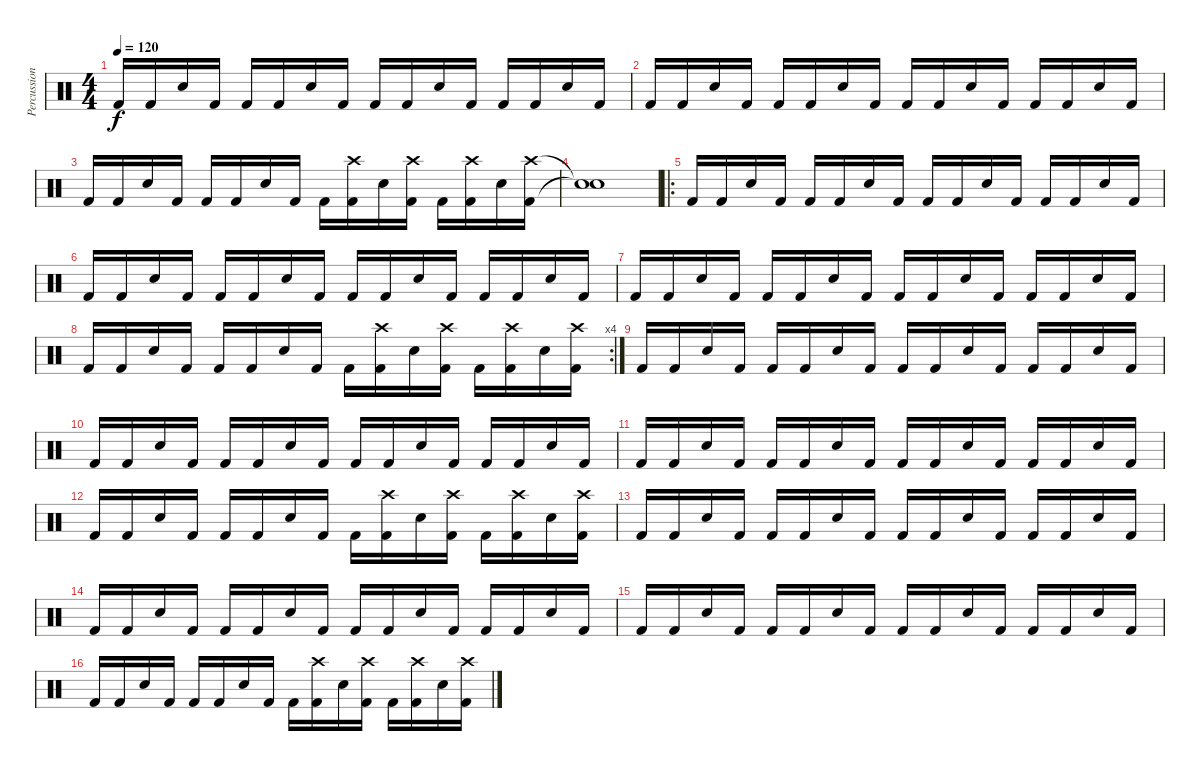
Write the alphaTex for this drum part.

\track ("Percussion" "Percussion") {instrument percussion}
\staff {score}
\articulation defaults
\ts (4 4)
\tempo 120
\clef neutral
\ks c "Kick (hit) 2".16{dy f} "Kick (hit) 2".16 "Snare (hit) 2".16 "Kick (hit) 2".16 "Kick (hit) 2".16 "Kick (hit) 2".16 "Snare (hit) 2".16 "Kick (hit) 2".16 "Kick (hit) 2".16 "Kick (hit) 2".16 "Snare (hit) 2".16 "Kick (hit) 2".16 "Kick (hit) 2".16 "Kick (hit) 2".16 "Snare (hit) 2".16 "Kick (hit) 2".16
|
"Kick (hit) 2".16 "Kick (hit) 2".16 "Snare (hit) 2".16 "Kick (hit) 2".16 "Kick (hit) 2".16 "Kick (hit) 2".16 "Snare (hit) 2".16 "Kick (hit) 2".16 "Kick (hit) 2".16 "Kick (hit) 2".16 "Snare (hit) 2".16 "Kick (hit) 2".16 "Kick (hit) 2".16 "Kick (hit) 2".16 "Snare (hit) 2".16 "Kick (hit) 2".16 |
"Kick (hit) 2".16 "Kick (hit) 2".16 "Snare (hit) 2".16 "Kick (hit) 2".16 "Kick (hit) 2".16 "Kick (hit) 2".16 "Snare (hit) 2".16 "Kick (hit) 2".16 "Kick (hit) 2".16 ("Crash high (hit)" "Kick (hit) 2").16 "Snare (hit) 2".16 ("Crash high (hit)" "Kick (hit) 2").16 "Kick (hit) 2".16 ("Crash high (hit)" "Kick (hit) 2").16 "Snare (hit) 2".16 ("Crash high (hit)" "Kick (hit) 2").16 |
("Snare (hit)"{t} "Snare (hit)"{t}).1 |
\ro "Kick (hit) 2".16 "Kick (hit) 2".16 "Snare (hit) 2".16 "Kick (hit) 2".16 "Kick (hit) 2".16 "Kick (hit) 2".16 "Snare (hit) 2".16 "Kick (hit) 2".16 "Kick (hit) 2".16 "Kick (hit) 2".16 "Snare (hit) 2".16 "Kick (hit) 2".16 "Kick (hit) 2".16 "Kick (hit) 2".16 "Snare (hit) 2".16 "Kick (hit) 2".16
|
"Kick (hit) 2".16 "Kick (hit) 2".16 "Snare (hit) 2".16 "Kick (hit) 2".16 "Kick (hit) 2".16 "Kick (hit) 2".16 "Snare (hit) 2".16 "Kick (hit) 2".16 "Kick (hit) 2".16 "Kick (hit) 2".16 "Snare (hit) 2".16 "Kick (hit) 2".16 "Kick (hit) 2".16 "Kick (hit) 2".16 "Snare (hit) 2".16 "Kick (hit) 2".16 |
"Kick (hit) 2".16 "Kick (hit) 2".16 "Snare (hit) 2".16 "Kick (hit) 2".16 "Kick (hit) 2".16 "Kick (hit) 2".16 "Snare (hit) 2".16 "Kick (hit) 2".16 "Kick (hit) 2".16 "Kick (hit) 2".16 "Snare (hit) 2".16 "Kick (hit) 2".16 "Kick (hit) 2".16 "Kick (hit) 2".16 "Snare (hit) 2".16 "Kick (hit) 2".16 |
\rc 4 "Kick (hit) 2".16 "Kick (hit) 2".16 "Snare (hit) 2".16 "Kick (hit) 2".16 "Kick (hit) 2".16 "Kick (hit) 2".16 "Snare (hit) 2".16 "Kick (hit) 2".16 "Kick (hit) 2".16
("Crash high (hit)" "Kick (hit) 2").16 "Snare (hit) 2".16 ("Crash high (hit)" "Kick (hit) 2").16 "Kick (hit) 2".16 ("Crash high (hit)" "Kick (hit) 2").16 "Snare (hit) 2".16 ("Crash high (hit)" "Kick (hit) 2").16 |
"Kick (hit) 2".16 "Kick (hit) 2".16 "Snare (hit) 2".16 "Kick (hit) 2".16 "Kick (hit) 2".16 "Kick (hit) 2".16 "Snare (hit) 2".16 "Kick (hit) 2".16 "Kick (hit) 2".16 "Kick (hit) 2".16 "Snare (hit) 2".16 "Kick (hit) 2".16 "Kick (hit) 2".16 "Kick (hit) 2".16 "Snare (hit) 2".16 "Kick (hit) 2".16 |
"Kick (hit) 2".16 "Kick (hit) 2".16 "Snare (hit) 2".16 "Kick (hit) 2".16 "Kick (hit) 2".16 "Kick (hit) 2".16 "Snare (hit) 2".16 "Kick (hit) 2".16 "Kick (hit) 2".16 "Kick (hit) 2".16 "Snare (hit) 2".16 "Kick (hit) 2".16 "Kick (hit) 2".16 "Kick (hit) 2".16 "Snare (hit) 2".16 "Kick (hit) 2".16 |
"Kick (hit) 2".16 "Kick (hit) 2".16 "Snare (hit) 2".16 "Kick (hit) 2".16 "Kick (hit) 2".16 "Kick (hit) 2".16 "Snare (hit) 2".16 "Kick (hit) 2".16 "Kick (hit) 2".16 "Kick (hit) 2".16 "Snare (hit) 2".16 "Kick (hit) 2".16 "Kick (hit) 2".16 "Kick (hit) 2".16 "Snare (hit) 2".16 "Kick (hit) 2".16 |
"Kick (hit) 2".16 "Kick (hit) 2".16 "Snare (hit) 2".16 "Kick (hit) 2".16 "Kick (hit) 2".16 "Kick (hit) 2".16 "Snare (hit) 2".16 "Kick (hit) 2".16 "Kick (hit) 2".16 ("Crash high (hit)" "Kick (hit) 2").16 "Snare (hit) 2".16 ("Crash high (hit)" "Kick (hit) 2").16 "Kick (hit) 2".16 ("Crash high (hit)" "Kick (hit) 2").16 "Snare (hit) 2".16 ("Crash high (hit)" "Kick (hit) 2").16 |
"Kick (hit) 2".16 "Kick (hit) 2".16 "Snare (hit) 2".16 "Kick (hit) 2".16 "Kick (hit) 2".16 "Kick (hit) 2".16 "Snare (hit) 2".16 "Kick (hit) 2".16 "Kick (hit) 2".16 "Kick (hit) 2".16 "Snare (hit) 2".16 "Kick (hit) 2".16 "Kick (hit) 2".16 "Kick (hit) 2".16 "Snare (hit) 2".16 "Kick (hit) 2".16 |
"Kick (hit) 2".16 "Kick (hit) 2".16 "Snare (hit) 2".16 "Kick (hit) 2".16 "Kick (hit) 2".16 "Kick (hit) 2".16 "Snare (hit) 2".16 "Kick (hit) 2".16 "Kick (hit) 2".16 "Kick (hit) 2".16 "Snare (hit) 2".16 "Kick (hit) 2".16 "Kick (hit) 2".16 "Kick (hit) 2".16 "Snare (hit) 2".16 "Kick (hit) 2".16 |
"Kick (hit) 2".16 "Kick (hit) 2".16 "Snare (hit) 2".16 "Kick (hit) 2".16 "Kick (hit) 2".16 "Kick (hit) 2".16 "Snare (hit) 2".16 "Kick (hit) 2".16 "Kick (hit) 2".16 "Kick (hit) 2".16 "Snare (hit) 2".16 "Kick (hit) 2".16 "Kick (hit) 2".16 "Kick (hit) 2".16 "Snare (hit) 2".16 "Kick (hit) 2".16 |
"Kick (hit) 2".16 "Kick (hit) 2".16 "Snare (hit) 2".16 "Kick (hit) 2".16 "Kick (hit) 2".16 "Kick (hit) 2".16 "Snare (hit) 2".16 "Kick (hit) 2".16 "Kick (hit) 2".16 ("Crash high (hit)" "Kick (hit) 2").16 "Snare (hit) 2".16 ("Crash high (hit)" "Kick (hit) 2").16 "Kick (hit) 2".16 ("Crash high (hit)" "Kick (hit) 2").16 "Snare (hit) 2".16 ("Crash high (hit)" "Kick (hit) 2").16
